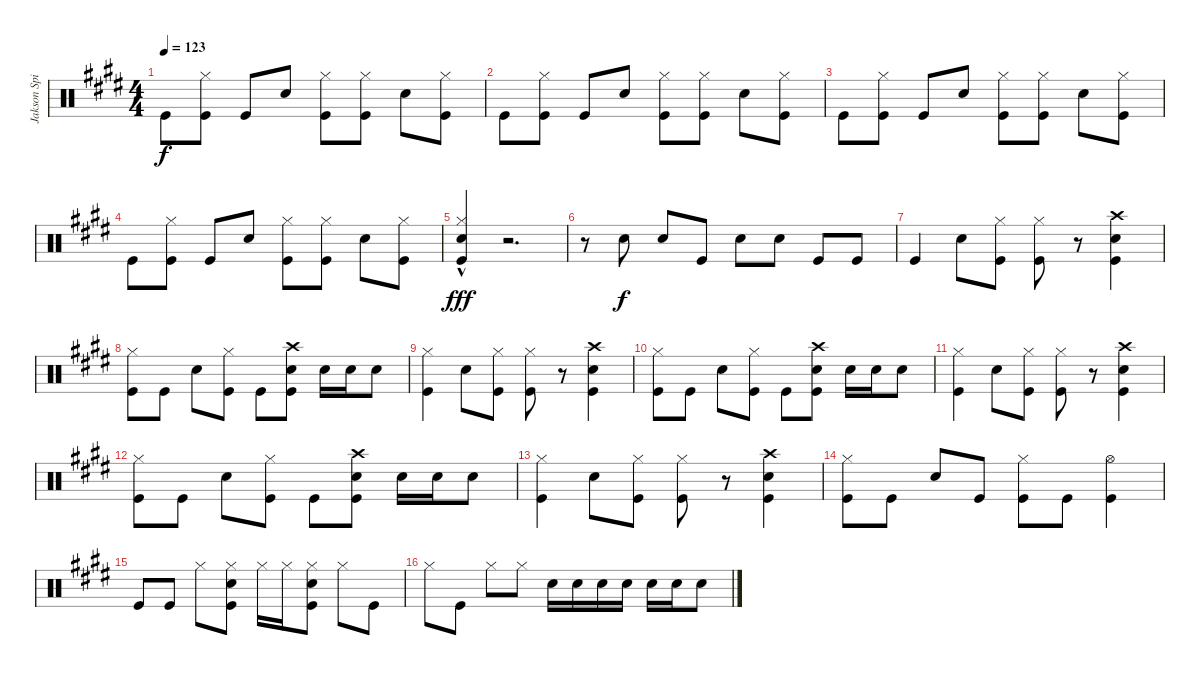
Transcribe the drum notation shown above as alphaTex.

\track ("Jakson Spires Drums" "Jakson Spi") {instrument percussion}
\staff {score}
\articulation defaults
\ts (4 4)
\tempo 123
\clef neutral
\ks e "Kick (hit)".8{dy f}
("Hi-Hat (closed)" "Kick (hit)").8 "Kick (hit)".8 "Snare (hit) 2".8 ("Hi-Hat (closed)" "Kick (hit)").8 ("Hi-Hat (closed)" "Kick (hit)").8 "Snare (hit) 2".8 ("Hi-Hat (closed)" "Kick (hit)").8 |
"Kick (hit)".8 ("Hi-Hat (closed)" "Kick (hit)").8 "Kick (hit)".8 "Snare (hit) 2".8 ("Hi-Hat (closed)" "Kick (hit)").8 ("Hi-Hat (closed)" "Kick (hit)").8 "Snare (hit) 2".8 ("Hi-Hat (closed)" "Kick (hit)").8 |
"Kick (hit)".8 ("Hi-Hat (closed)" "Kick (hit)").8 "Kick (hit)".8 "Snare (hit) 2".8 ("Hi-Hat (closed)" "Kick (hit)").8 ("Hi-Hat (closed)" "Kick (hit)").8 "Snare (hit) 2".8 ("Hi-Hat (closed)" "Kick (hit)").8 |
"Kick (hit)".8 ("Hi-Hat (closed)" "Kick (hit)").8 "Kick (hit)".8 "Snare (hit) 2".8 ("Hi-Hat (closed)" "Kick (hit)").8 ("Hi-Hat (closed)" "Kick (hit)").8 "Snare (hit) 2".8 ("Hi-Hat (closed)" "Kick (hit)").8 |
("Hi-Hat (closed)"{hac} "Snare (hit) 2" "Kick (hit)").4{dy fff} r.2{d} |
r.8 "Snare (hit) 2".8{dy f} "Snare (hit) 2".8 "Kick (hit)".8 "Snare (hit) 2".8 "Snare (hit) 2".8 "Kick (hit)".8 "Kick (hit)".8 |
"Kick (hit)".4 "Snare (hit) 2".8 ("Hi-Hat (closed)" "Kick (hit)").8 ("Hi-Hat (closed)" "Kick (hit)").8 r.8 ("Crash high (hit)" "Snare (hit) 2" "Kick (hit)").4 |
("Hi-Hat (closed)" "Kick (hit)").8 "Kick (hit)".8 "Snare (hit) 2".8 ("Hi-Hat (closed)" "Kick (hit)").8 "Kick (hit)".8 ("Crash high (hit)" "Snare (hit) 2" "Kick (hit)").8 "Snare (hit) 2".16 "Snare (hit) 2".16 "Snare (hit) 2".8 |
("Hi-Hat (closed)" "Kick (hit)").4 "Snare (hit) 2".8 ("Hi-Hat (closed)" "Kick (hit)").8 ("Hi-Hat (closed)" "Kick (hit)").8 r.8 ("Crash high (hit)" "Snare (hit) 2" "Kick (hit)").4 |
("Hi-Hat (closed)" "Kick (hit)").8 "Kick (hit)".8 "Snare (hit) 2".8 ("Hi-Hat (closed)" "Kick (hit)").8 "Kick (hit)".8 ("Crash high (hit)" "Snare (hit) 2" "Kick (hit)").8 "Snare (hit) 2".16 "Snare (hit) 2".16 "Snare (hit) 2".8 |
("Hi-Hat (closed)" "Kick (hit)").4 "Snare (hit) 2".8 ("Hi-Hat (closed)" "Kick (hit)").8 ("Hi-Hat (closed)" "Kick (hit)").8 r.8 ("Crash high (hit)" "Snare (hit) 2" "Kick (hit)").4 |
("Hi-Hat (closed)" "Kick (hit)").8 "Kick (hit)".8 "Snare (hit) 2".8 ("Hi-Hat (closed)" "Kick (hit)").8 "Kick (hit)".8 ("Crash high (hit)" "Snare (hit) 2" "Kick (hit)").8 "Snare (hit) 2".16 "Snare (hit) 2".16 "Snare (hit) 2".8 |
("Hi-Hat (closed)" "Kick (hit)").4 "Snare (hit) 2".8 ("Hi-Hat (closed)" "Kick (hit)").8 ("Hi-Hat (closed)" "Kick (hit)").8 r.8 ("Crash high (hit)" "Snare (hit) 2" "Kick (hit)").4 |
("Hi-Hat (closed)" "Kick (hit)").8 "Kick (hit)".8 "Snare (hit) 2".8 "Kick (hit)".8 ("Hi-Hat (closed)" "Kick (hit)").8 "Kick (hit)".8 ("Hi-Hat (open)" "Kick (hit)").4 |
"Kick (hit)".8 "Kick (hit)".8 "Hi-Hat (closed)".8 ("Hi-Hat (closed)" "Snare (hit) 2" "Kick (hit)").8 "Hi-Hat (closed)".16 "Hi-Hat (closed)".16 ("Hi-Hat (closed)" "Snare (hit) 2" "Kick (hit)").8 "Hi-Hat (closed)".8 "Kick (hit)".8 |
"Hi-Hat (closed)".8 "Kick (hit)".8 "Hi-Hat (closed)".8 "Hi-Hat (closed)".8 "Snare (hit) 2".16 "Snare (hit) 2".16 "Snare (hit) 2".16 "Snare (hit) 2".16 "Snare (hit) 2".16 "Snare (hit) 2".16 "Snare (hit) 2".8
